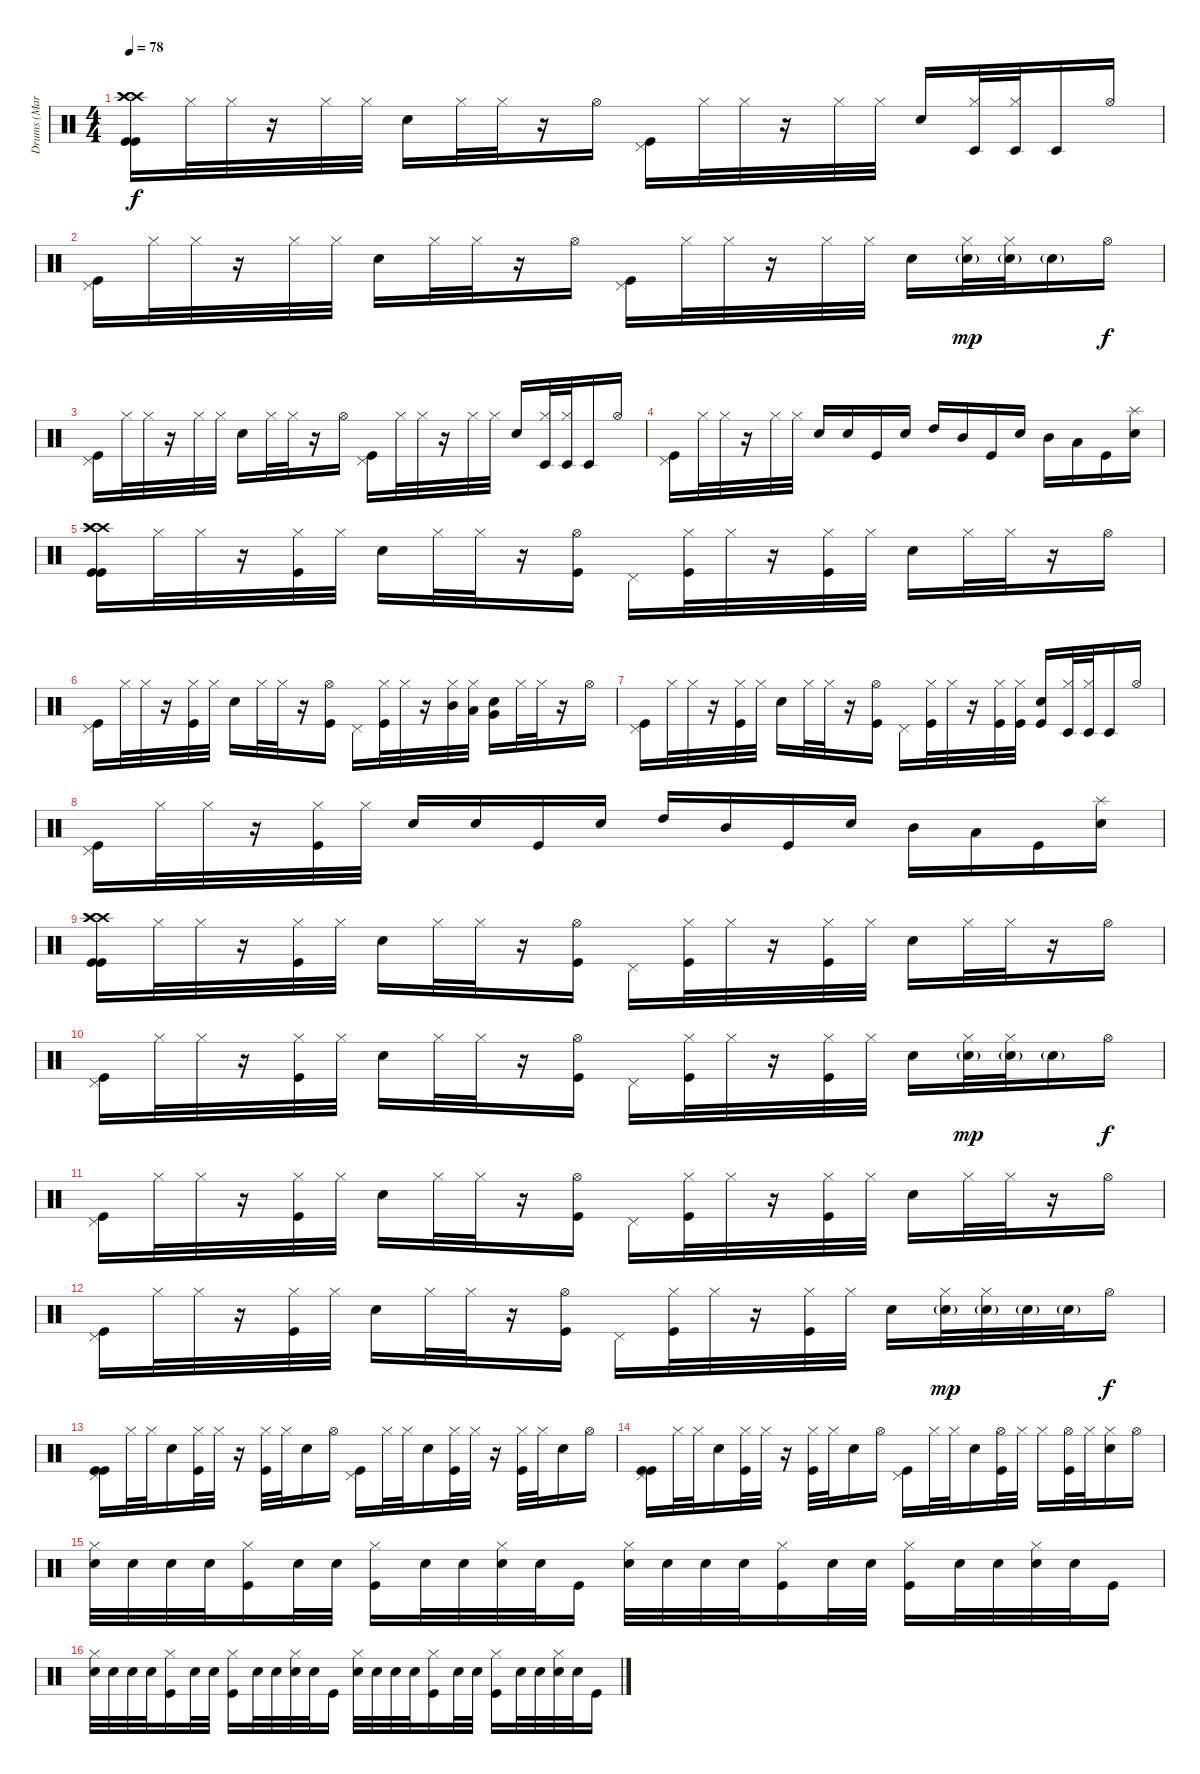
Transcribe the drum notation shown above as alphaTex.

\track ("Drums (Mark Zonder)" "Drums (Mar") {instrument percussion}
\staff {score}
\articulation defaults
\ts (4 4)
\tempo 78
\clef neutral
\ks c
("Crash high (hit)" "Crash high (hit)" "Crash high (hit)" "Kick (hit)" "Kick (hit)").16{dy f} "Hi-Hat (closed)".32 "Hi-Hat (closed)".32 r.16 "Hi-Hat (closed)".32 "Hi-Hat (closed)".32 "Electric Snare (hit)".16 "Hi-Hat (closed)".32 "Hi-Hat (closed)".32 r.16 "Hi-Hat (open)".16 ("Pedal Hi-Hat (hit)" "Kick (hit)").16 "Hi-Hat (closed)".32 "Hi-Hat (closed)".32 r.16 "Hi-Hat (closed)".32 "Hi-Hat (closed)".32 "Electric Snare (hit)".16 ("Hi-Hat (closed)" "Timbale low (hit)").32 ("Hi-Hat (closed)" "Timbale low (hit)").32 "Timbale low (hit)".16 "Hi-Hat (open)".16 |
("Pedal Hi-Hat (hit)" "Kick (hit)").16 "Hi-Hat (closed)".32 "Hi-Hat (closed)".32 r.16 "Hi-Hat (closed)".32 "Hi-Hat (closed)".32 "Electric Snare (hit)".16 "Hi-Hat (closed)".32 "Hi-Hat (closed)".32 r.16 "Hi-Hat (open)".16 ("Pedal Hi-Hat (hit)" "Kick (hit)").16 "Hi-Hat (closed)".32 "Hi-Hat (closed)".32 r.16 "Hi-Hat (closed)".32 "Hi-Hat (closed)".32 "Electric Snare (hit)".16 ("Hi-Hat (closed)" "Snare (hit) 2"{g}).32{dy mp} ("Hi-Hat (closed)" "Snare (hit) 2"{g}).32 "Snare (hit) 2"{g}.16 "Hi-Hat (open)".16{dy f} |
("Pedal Hi-Hat (hit)" "Kick (hit)").16 "Hi-Hat (closed)".32 "Hi-Hat (closed)".32 r.16 "Hi-Hat (closed)".32 "Hi-Hat (closed)".32 "Electric Snare (hit)".16 "Hi-Hat (closed)".32 "Hi-Hat (closed)".32 r.16 "Hi-Hat (open)".16 ("Pedal Hi-Hat (hit)" "Kick (hit)").16 "Hi-Hat (closed)".32 "Hi-Hat (closed)".32 r.16 "Hi-Hat (closed)".32 "Hi-Hat (closed)".32 "Electric Snare (hit)".16 ("Hi-Hat (closed)" "Timbale low (hit)").32 ("Hi-Hat (closed)" "Timbale low (hit)").32 "Timbale low (hit)".16 "Hi-Hat (open)".16 |
("Pedal Hi-Hat (hit)" "Kick (hit)").16 "Hi-Hat (closed)".32 "Hi-Hat (closed)".32 r.16 "Hi-Hat (closed)".32 "Hi-Hat (closed)".32 "Electric Snare (hit)".16 "Electric Snare (hit)".16 "Kick (hit)".16 "Electric Snare (hit)".16 "High Tom (hit)".16 "Mid Tom (hit)".16 "Kick (hit)".16 "Electric Snare (hit)".16 "Mid Tom (hit)".16 "Low Tom (hit)".16 "Kick (hit)".16 ("Splash (hit)" "Electric Snare (hit)").16 |
("Crash high (hit)" "Crash high (hit)" "Crash high (hit)" "Kick (hit)" "Kick (hit)").16 "Hi-Hat (closed)".32 "Hi-Hat (closed)".32 r.16 ("Hi-Hat (closed)" "Kick (hit)").32 "Hi-Hat (closed)".32 "Electric Snare (hit)".16 "Hi-Hat (closed)".32 "Hi-Hat (closed)".32 r.16 ("Hi-Hat (open)" "Kick (hit)").16 "Pedal Hi-Hat (hit)".16 ("Hi-Hat (closed)" "Kick (hit)").32 "Hi-Hat (closed)".32 r.16 ("Hi-Hat (closed)" "Kick (hit)").32 "Hi-Hat (closed)".32 "Electric Snare (hit)".16 "Hi-Hat (closed)".32 "Hi-Hat (closed)".32 r.16 "Hi-Hat (open)".16 |
("Pedal Hi-Hat (hit)" "Kick (hit)").16 "Hi-Hat (closed)".32 "Hi-Hat (closed)".32 r.16 ("Hi-Hat (closed)" "Kick (hit)").32 "Hi-Hat (closed)".32 "Electric Snare (hit)".16 "Hi-Hat (closed)".32 "Hi-Hat (closed)".32 r.16 ("Hi-Hat (open)" "Kick (hit)").16 "Pedal Hi-Hat (hit)".16 ("Hi-Hat (closed)" "Kick (hit)").32 "Hi-Hat (closed)".32 r.16 ("Hi-Hat (closed)" "Mid Tom (hit)").32 ("Hi-Hat (closed)" "Low Tom (hit)").32 ("Very Low Tom (hit)" "Electric Snare (hit)").16 "Hi-Hat (closed)".32 "Hi-Hat (closed)".32 r.16 "Hi-Hat (open)".16 |
("Pedal Hi-Hat (hit)" "Kick (hit)").16 "Hi-Hat (closed)".32 "Hi-Hat (closed)".32 r.16 ("Hi-Hat (closed)" "Kick (hit)").32 "Hi-Hat (closed)".32 "Electric Snare (hit)".16 "Hi-Hat (closed)".32 "Hi-Hat (closed)".32 r.16 ("Hi-Hat (open)" "Kick (hit)").16 "Pedal Hi-Hat (hit)".16 ("Hi-Hat (closed)" "Kick (hit)").32 "Hi-Hat (closed)".32 r.16 ("Hi-Hat (closed)" "Kick (hit)").32 ("Hi-Hat (closed)" "Kick (hit)").32 ("Kick (hit)" "Electric Snare (hit)").16 ("Hi-Hat (closed)" "Timbale low (hit)").32 ("Hi-Hat (closed)" "Timbale low (hit)").32 "Timbale low (hit)".16 "Hi-Hat (open)".16 |
("Pedal Hi-Hat (hit)" "Kick (hit)").16 "Hi-Hat (closed)".32 "Hi-Hat (closed)".32 r.16 ("Hi-Hat (closed)" "Kick (hit)").32 "Hi-Hat (closed)".32 "Electric Snare (hit)".16 "Electric Snare (hit)".16 "Kick (hit)".16 "Electric Snare (hit)".16 "High Tom (hit)".16 "Mid Tom (hit)".16 "Kick (hit)".16 "Electric Snare (hit)".16 "Mid Tom (hit)".16 "Low Tom (hit)".16 "Kick (hit)".16 ("Splash (hit)" "Electric Snare (hit)").16 |
("Crash high (hit)" "Crash high (hit)" "Crash high (hit)" "Kick (hit)" "Kick (hit)").16 "Hi-Hat (closed)".32 "Hi-Hat (closed)".32 r.16 ("Hi-Hat (closed)" "Kick (hit)").32 "Hi-Hat (closed)".32 "Electric Snare (hit)".16 "Hi-Hat (closed)".32 "Hi-Hat (closed)".32 r.16 ("Hi-Hat (open)" "Kick (hit)").16 "Pedal Hi-Hat (hit)".16 ("Hi-Hat (closed)" "Kick (hit)").32 "Hi-Hat (closed)".32 r.16 ("Hi-Hat (closed)" "Kick (hit)").32 "Hi-Hat (closed)".32 "Electric Snare (hit)".16 "Hi-Hat (closed)".32 "Hi-Hat (closed)".32 r.16 "Hi-Hat (open)".16 |
("Pedal Hi-Hat (hit)" "Kick (hit)").16 "Hi-Hat (closed)".32 "Hi-Hat (closed)".32 r.16 ("Hi-Hat (closed)" "Kick (hit)").32 "Hi-Hat (closed)".32 "Electric Snare (hit)".16 "Hi-Hat (closed)".32 "Hi-Hat (closed)".32 r.16 ("Hi-Hat (open)" "Kick (hit)").16 "Pedal Hi-Hat (hit)".16 ("Hi-Hat (closed)" "Kick (hit)").32 "Hi-Hat (closed)".32 r.16 ("Hi-Hat (closed)" "Kick (hit)").32 "Hi-Hat (closed)".32 "Electric Snare (hit)".16 ("Hi-Hat (closed)" "Snare (hit) 2"{g}).32{dy mp} ("Hi-Hat (closed)" "Snare (hit) 2"{g}).32 "Snare (hit) 2"{g}.16 "Hi-Hat (open)".16{dy f} |
("Pedal Hi-Hat (hit)" "Kick (hit)").16 "Hi-Hat (closed)".32 "Hi-Hat (closed)".32 r.16 ("Hi-Hat (closed)" "Kick (hit)").32 "Hi-Hat (closed)".32 "Electric Snare (hit)".16 "Hi-Hat (closed)".32 "Hi-Hat (closed)".32 r.16 ("Hi-Hat (open)" "Kick (hit)").16 "Pedal Hi-Hat (hit)".16 ("Hi-Hat (closed)" "Kick (hit)").32 "Hi-Hat (closed)".32 r.16 ("Hi-Hat (closed)" "Kick (hit)").32 "Hi-Hat (closed)".32 "Electric Snare (hit)".16 "Hi-Hat (closed)".32 "Hi-Hat (closed)".32 r.16 "Hi-Hat (open)".16 |
("Pedal Hi-Hat (hit)" "Kick (hit)").16 "Hi-Hat (closed)".32 "Hi-Hat (closed)".32 r.16 ("Hi-Hat (closed)" "Kick (hit)").32 "Hi-Hat (closed)".32 "Electric Snare (hit)".16 "Hi-Hat (closed)".32 "Hi-Hat (closed)".32 r.16 ("Hi-Hat (open)" "Kick (hit)").16 "Pedal Hi-Hat (hit)".16 ("Hi-Hat (closed)" "Kick (hit)").32 "Hi-Hat (closed)".32 r.16 ("Hi-Hat (closed)" "Kick (hit)").32 "Hi-Hat (closed)".32 "Electric Snare (hit)".16 ("Hi-Hat (closed)" "Snare (hit) 2"{g}).32{dy mp} ("Hi-Hat (closed)" "Snare (hit) 2"{g}).32 "Snare (hit) 2"{g}.32 "Snare (hit) 2"{g}.32 "Hi-Hat (open)".16{dy f} |
("Pedal Hi-Hat (hit)" "Kick (hit)" "Kick (hit)").16 "Hi-Hat (closed)".32 "Hi-Hat (closed)".32 "Electric Snare (hit)".16 ("Hi-Hat (closed)" "Kick (hit)").32 "Hi-Hat (closed)".32 r.16 ("Hi-Hat (closed)" "Kick (hit)").32 "Hi-Hat (closed)".32 "Electric Snare (hit)".16 "Hi-Hat (open)".16 ("Pedal Hi-Hat (hit)" "Kick (hit)").16 "Hi-Hat (closed)".32 "Hi-Hat (closed)".32 "Electric Snare (hit)".16 ("Hi-Hat (closed)" "Kick (hit)").32 "Hi-Hat (closed)".32 r.16 ("Hi-Hat (closed)" "Kick (hit)").32 "Hi-Hat (closed)".32 "Electric Snare (hit)".16 "Hi-Hat (open)".16 |
("Pedal Hi-Hat (hit)" "Kick (hit)" "Kick (hit)").16 "Hi-Hat (closed)".32 "Hi-Hat (closed)".32 "Electric Snare (hit)".16 ("Hi-Hat (closed)" "Kick (hit)").32 "Hi-Hat (closed)".32 r.16 ("Hi-Hat (closed)" "Kick (hit)").32 "Hi-Hat (closed)".32 "Electric Snare (hit)".16 "Hi-Hat (open)".16 ("Pedal Hi-Hat (hit)" "Kick (hit)").16 "Hi-Hat (closed)".32 "Hi-Hat (closed)".32 "Electric Snare (hit)".16 ("Hi-Hat (open)" "Kick (hit)").32 "Hi-Hat (closed)".32 "Hi-Hat (closed)".16 ("Hi-Hat (open)" "Kick (hit)").32 "Hi-Hat (closed)".32 ("Hi-Hat (closed)" "Electric Snare (hit)").16 "Hi-Hat (open)".16 |
("Hi-Hat (closed)" "Electric Snare (hit)").32 "Electric Snare (hit)".32 "Electric Snare (hit)".32 "Electric Snare (hit)".32 ("Hi-Hat (closed)" "Kick (hit)").16 "Electric Snare (hit)".32 "Electric Snare (hit)".32 ("Hi-Hat (closed)" "Kick (hit)").16 "Electric Snare (hit)".32 "Electric Snare (hit)".32 ("Hi-Hat (closed)" "Electric Snare (hit)").32 "Electric Snare (hit)".32 "Kick (hit)".16 ("Hi-Hat (closed)" "Electric Snare (hit)").32 "Electric Snare (hit)".32 "Electric Snare (hit)".32 "Electric Snare (hit)".32 ("Hi-Hat (closed)" "Kick (hit)").16 "Electric Snare (hit)".32 "Electric Snare (hit)".32 ("Hi-Hat (closed)" "Kick (hit)").16 "Electric Snare (hit)".32 "Electric Snare (hit)".32 ("Hi-Hat (closed)" "Electric Snare (hit)").32 "Electric Snare (hit)".32 "Kick (hit)".16 |
("Hi-Hat (closed)" "Electric Snare (hit)").32 "Electric Snare (hit)".32 "Electric Snare (hit)".32 "Electric Snare (hit)".32 ("Hi-Hat (closed)" "Kick (hit)").16 "Electric Snare (hit)".32 "Electric Snare (hit)".32 ("Hi-Hat (closed)" "Kick (hit)").16 "Electric Snare (hit)".32 "Electric Snare (hit)".32 ("Hi-Hat (closed)" "Electric Snare (hit)").32 "Electric Snare (hit)".32 "Kick (hit)".16 ("Hi-Hat (closed)" "Electric Snare (hit)").32 "Electric Snare (hit)".32 "Electric Snare (hit)".32 "Electric Snare (hit)".32 ("Hi-Hat (closed)" "Kick (hit)").16 "Electric Snare (hit)".32 "Electric Snare (hit)".32 ("Hi-Hat (closed)" "Kick (hit)").16 "Electric Snare (hit)".32 "Electric Snare (hit)".32 ("Hi-Hat (closed)" "Electric Snare (hit)").32 "Electric Snare (hit)".32 "Kick (hit)".16
